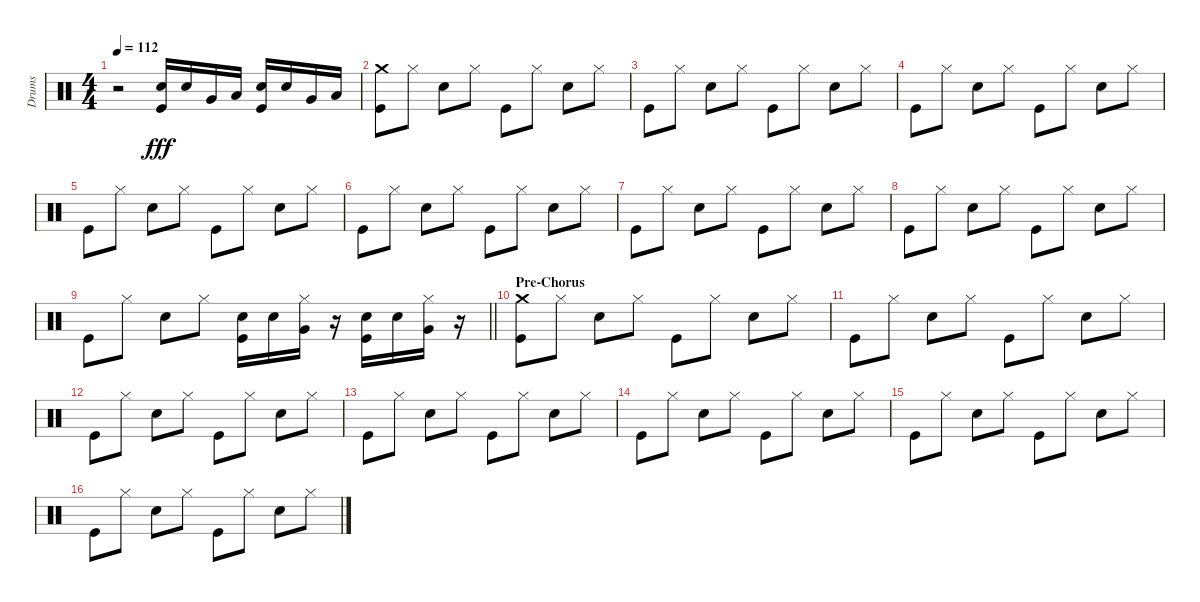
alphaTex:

\track ("Drums" "Drums") {instrument percussion}
\staff {score}
\articulation defaults
\ts (4 4)
\tempo 112
\clef neutral
\ks c
r.2{dy fff} ("Snare (hit) 2" "Kick (hit)").16 "Snare (hit) 2".16 "Very Low Tom (hit)".16 "Low Floor Tom (hit)".16 ("Snare (hit) 2" "Kick (hit)").16 "Snare (hit) 2".16 "Very Low Tom (hit)".16 "Low Floor Tom (hit)".16 |
("Crash medium (hit)" "Kick (hit)").8 "Hi-Hat (closed)".8 "Snare (hit) 2".8 "Hi-Hat (closed)".8 "Kick (hit)".8 "Hi-Hat (closed)".8 "Snare (hit) 2".8 "Hi-Hat (closed)".8 |
"Kick (hit)".8 "Hi-Hat (closed)".8 "Snare (hit) 2".8 "Hi-Hat (closed)".8 "Kick (hit)".8 "Hi-Hat (closed)".8 "Snare (hit) 2".8 "Hi-Hat (closed)".8 |
"Kick (hit)".8 "Hi-Hat (closed)".8 "Snare (hit) 2".8 "Hi-Hat (closed)".8 "Kick (hit)".8 "Hi-Hat (closed)".8 "Snare (hit) 2".8 "Hi-Hat (closed)".8 |
"Kick (hit)".8 "Hi-Hat (closed)".8 "Snare (hit) 2".8 "Hi-Hat (closed)".8 "Kick (hit)".8 "Hi-Hat (closed)".8 "Snare (hit) 2".8 "Hi-Hat (closed)".8 |
"Kick (hit)".8 "Hi-Hat (closed)".8 "Snare (hit) 2".8 "Hi-Hat (closed)".8 "Kick (hit)".8 "Hi-Hat (closed)".8 "Snare (hit) 2".8 "Hi-Hat (closed)".8 |
"Kick (hit)".8 "Hi-Hat (closed)".8 "Snare (hit) 2".8 "Hi-Hat (closed)".8 "Kick (hit)".8 "Hi-Hat (closed)".8 "Snare (hit) 2".8 "Hi-Hat (closed)".8 |
"Kick (hit)".8 "Hi-Hat (closed)".8 "Snare (hit) 2".8 "Hi-Hat (closed)".8 "Kick (hit)".8 "Hi-Hat (closed)".8 "Snare (hit) 2".8 "Hi-Hat (closed)".8 |
\barLineRight lightlight "Kick (hit)".8 "Hi-Hat (closed)".8 "Snare (hit) 2".8 "Hi-Hat (closed)".8
("Snare (hit) 2" "Kick (hit)").16 "Snare (hit) 2".16 ("Hi-Hat (closed)" "Very Low Tom (hit)").16 r.16 ("Snare (hit) 2" "Kick (hit)").16 "Snare (hit) 2".16 ("Hi-Hat (closed)" "Very Low Tom (hit)").16 r.16 |
\section ("" "Pre-Chorus")
("Crash medium (hit)" "Kick (hit)").8 "Hi-Hat (closed)".8 "Snare (hit) 2".8 "Hi-Hat (closed)".8 "Kick (hit)".8 "Hi-Hat (closed)".8 "Snare (hit) 2".8 "Hi-Hat (closed)".8 |
"Kick (hit)".8 "Hi-Hat (closed)".8 "Snare (hit) 2".8 "Hi-Hat (closed)".8 "Kick (hit)".8 "Hi-Hat (closed)".8 "Snare (hit) 2".8 "Hi-Hat (closed)".8 |
"Kick (hit)".8 "Hi-Hat (closed)".8 "Snare (hit) 2".8 "Hi-Hat (closed)".8 "Kick (hit)".8 "Hi-Hat (closed)".8 "Snare (hit) 2".8 "Hi-Hat (closed)".8 |
"Kick (hit)".8 "Hi-Hat (closed)".8 "Snare (hit) 2".8 "Hi-Hat (closed)".8 "Kick (hit)".8 "Hi-Hat (closed)".8 "Snare (hit) 2".8 "Hi-Hat (closed)".8 |
"Kick (hit)".8 "Hi-Hat (closed)".8 "Snare (hit) 2".8 "Hi-Hat (closed)".8 "Kick (hit)".8 "Hi-Hat (closed)".8 "Snare (hit) 2".8 "Hi-Hat (closed)".8 |
"Kick (hit)".8 "Hi-Hat (closed)".8 "Snare (hit) 2".8 "Hi-Hat (closed)".8 "Kick (hit)".8 "Hi-Hat (closed)".8 "Snare (hit) 2".8 "Hi-Hat (closed)".8 |
"Kick (hit)".8 "Hi-Hat (closed)".8 "Snare (hit) 2".8 "Hi-Hat (closed)".8 "Kick (hit)".8 "Hi-Hat (closed)".8 "Snare (hit) 2".8 "Hi-Hat (closed)".8
